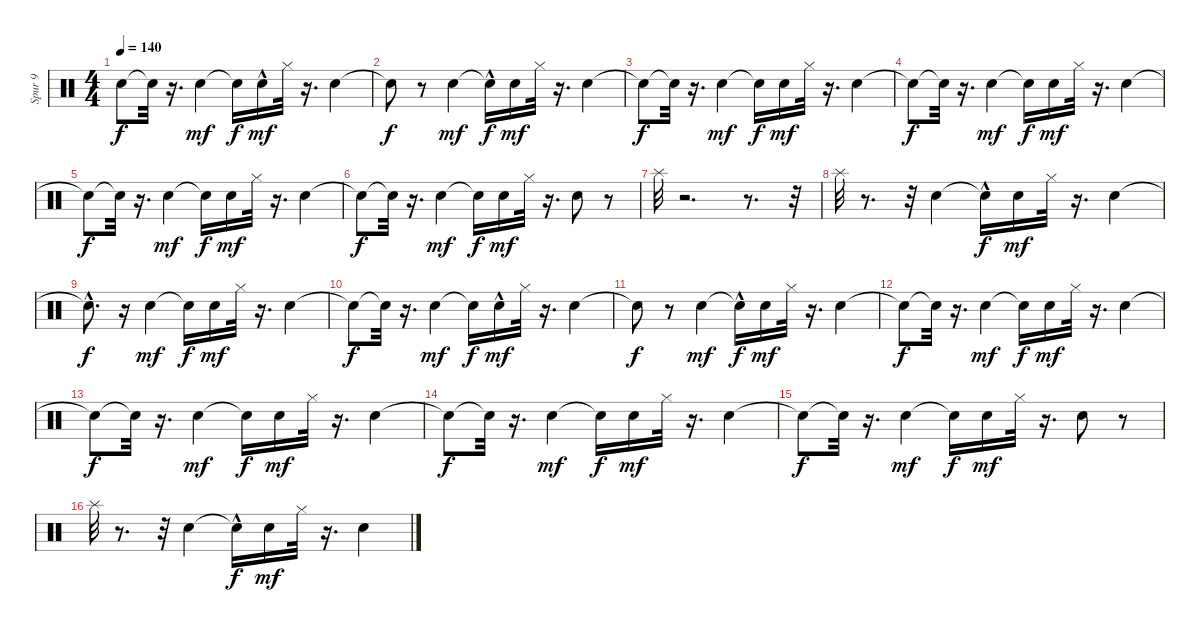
\track ("Spur 9" "Spur 9") {instrument percussion}
\staff {score}
\articulation defaults
\ts (4 4)
\tempo 140
\clef neutral
\ks c "Snare (hit)"{t}.8{dy f} "Snare (hit)"{t}.32
r.16{d} "Electric Snare (hit)".4{dy mf} "Snare (hit)"{t}.16{dy f} "Snare (hit)"{hac}.16{dy mf} "Hi-Hat (closed)".32 r.16{d} "Electric Snare (hit)".4 |
"Snare (hit)"{t}.8{dy f} r.8 "Electric Snare (hit)".4{dy mf} "Snare (hit)"{hac t}.16{dy f} "Snare (hit)".16{dy mf} "Hi-Hat (closed)".32 r.16{d} "Electric Snare (hit)".4 |
"Snare (hit)"{t}.8{dy f} "Snare (hit)"{t}.32 r.16{d} "Electric Snare (hit)".4{dy mf} "Snare (hit)"{t}.16{dy f} "Snare (hit)".16{dy mf} "Hi-Hat (closed)".32 r.16{d} "Electric Snare (hit)".4 |
"Snare (hit)"{t}.8{dy f} "Snare (hit)"{t}.32 r.16{d} "Electric Snare (hit)".4{dy mf} "Snare (hit)"{t}.16{dy f} "Snare (hit)".16{dy mf} "Hi-Hat (closed)".32 r.16{d} "Electric Snare (hit)".4 |
"Snare (hit)"{t}.8{dy f} "Snare (hit)"{t}.32 r.16{d} "Electric Snare (hit)".4{dy mf} "Snare (hit)"{t}.16{dy f} "Snare (hit)".16{dy mf} "Hi-Hat (closed)".32 r.16{d} "Electric Snare (hit)".4 |
"Snare (hit)"{t}.8{dy f} "Snare (hit)"{t}.32 r.16{d} "Electric Snare (hit)".4{dy mf} "Snare (hit)"{t}.16{dy f} "Snare (hit)".16{dy mf} "Hi-Hat (closed)".32 r.16{d} "Electric Snare (hit)".8 r.8 |
"Splash (hit)".32 r.2{d} r.8{d} r.32 |
"Splash (hit)".32 r.8{d} r.32 "Electric Snare (hit)".4 "Snare (hit)"{hac t}.16{dy f} "Snare (hit)".16{dy mf} "Hi-Hat (closed)".32 r.16{d} "Electric Snare (hit)".4 |
"Snare (hit)"{hac t}.8{d dy f} r.16 "Electric Snare (hit)".4{dy mf} "Snare (hit)"{t}.16{dy f} "Snare (hit)".16{dy mf} "Hi-Hat (closed)".32 r.16{d} "Electric Snare (hit)".4 |
"Snare (hit)"{t}.8{dy f} "Snare (hit)"{t}.32 r.16{d} "Electric Snare (hit)".4{dy mf} "Snare (hit)"{t}.16{dy f} "Snare (hit)"{hac}.16{dy mf} "Hi-Hat (closed)".32 r.16{d} "Electric Snare (hit)".4 |
"Snare (hit)"{t}.8{dy f} r.8 "Electric Snare (hit)".4{dy mf} "Snare (hit)"{hac t}.16{dy f} "Snare (hit)".16{dy mf} "Hi-Hat (closed)".32 r.16{d} "Electric Snare (hit)".4 |
"Snare (hit)"{t}.8{dy f} "Snare (hit)"{t}.32 r.16{d} "Electric Snare (hit)".4{dy mf} "Snare (hit)"{t}.16{dy f} "Snare (hit)".16{dy mf} "Hi-Hat (closed)".32 r.16{d} "Electric Snare (hit)".4 |
"Snare (hit)"{t}.8{dy f} "Snare (hit)"{t}.32 r.16{d} "Electric Snare (hit)".4{dy mf} "Snare (hit)"{t}.16{dy f} "Snare (hit)".16{dy mf} "Hi-Hat (closed)".32 r.16{d} "Electric Snare (hit)".4 |
"Snare (hit)"{t}.8{dy f} "Snare (hit)"{t}.32 r.16{d} "Electric Snare (hit)".4{dy mf} "Snare (hit)"{t}.16{dy f} "Snare (hit)".16{dy mf} "Hi-Hat (closed)".32 r.16{d} "Electric Snare (hit)".4 |
"Snare (hit)"{t}.8{dy f} "Snare (hit)"{t}.32 r.16{d} "Electric Snare (hit)".4{dy mf} "Snare (hit)"{t}.16{dy f} "Snare (hit)".16{dy mf} "Hi-Hat (closed)".32 r.16{d} "Electric Snare (hit)".8 r.8 |
"Splash (hit)".32 r.8{d} r.32 "Electric Snare (hit)".4 "Snare (hit)"{hac t}.16{dy f} "Snare (hit)".16{dy mf} "Hi-Hat (closed)".32 r.16{d} "Electric Snare (hit)".4
